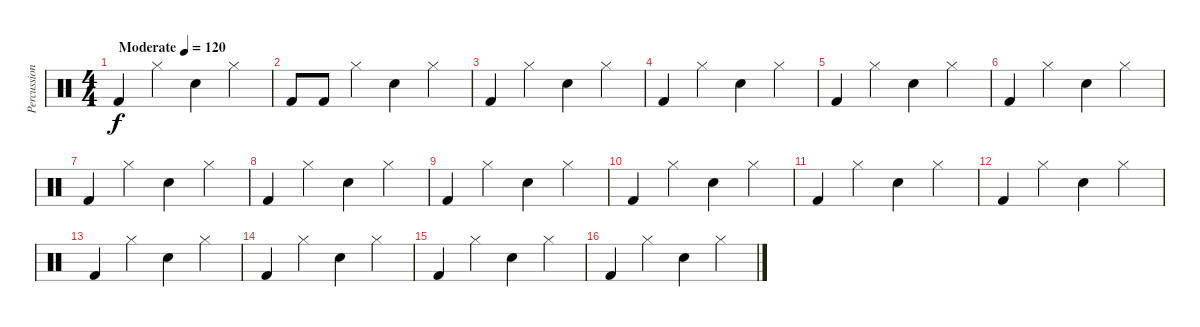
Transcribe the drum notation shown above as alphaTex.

\track ("Percussions" "Percussion") {instrument percussion}
\staff {score}
\articulation defaults
\ts (4 4)
\tempo (120 "Moderate")
\clef neutral
\ks c "Kick (hit) 2".4{dy f} "Hi-Hat (closed)".4 "Electric Snare (hit)".4 "Hi-Hat (closed)".4
|
"Kick (hit) 2".8 "Kick (hit) 2".8 "Hi-Hat (closed)".4 "Electric Snare (hit)".4 "Hi-Hat (closed)".4 |
"Kick (hit) 2".4 "Hi-Hat (closed)".4 "Electric Snare (hit)".4 "Hi-Hat (closed)".4 |
"Kick (hit) 2".4 "Hi-Hat (closed)".4 "Electric Snare (hit)".4 "Hi-Hat (closed)".4 |
"Kick (hit) 2".4 "Hi-Hat (closed)".4 "Electric Snare (hit)".4 "Hi-Hat (closed)".4 |
"Kick (hit) 2".4{volume 15 balance 15} "Hi-Hat (closed)".4 "Electric Snare (hit)".4 "Hi-Hat (closed)".4 |
"Kick (hit) 2".4 "Hi-Hat (closed)".4 "Electric Snare (hit)".4 "Hi-Hat (closed)".4 |
"Kick (hit) 2".4 "Hi-Hat (closed)".4 "Electric Snare (hit)".4 "Hi-Hat (closed)".4 |
"Kick (hit) 2".4 "Hi-Hat (closed)".4 "Electric Snare (hit)".4 "Hi-Hat (closed)".4 |
"Kick (hit) 2".4 "Hi-Hat (closed)".4 "Electric Snare (hit)".4 "Hi-Hat (closed)".4 |
"Kick (hit) 2".4 "Hi-Hat (closed)".4 "Electric Snare (hit)".4 "Hi-Hat (closed)".4 |
"Kick (hit) 2".4 "Hi-Hat (closed)".4 "Electric Snare (hit)".4 "Hi-Hat (closed)".4 |
"Kick (hit) 2".4 "Hi-Hat (closed)".4 "Electric Snare (hit)".4 "Hi-Hat (closed)".4 |
"Kick (hit) 2".4 "Hi-Hat (closed)".4 "Electric Snare (hit)".4 "Hi-Hat (closed)".4 |
"Kick (hit) 2".4 "Hi-Hat (closed)".4 "Electric Snare (hit)".4 "Hi-Hat (closed)".4 |
"Kick (hit) 2".4 "Hi-Hat (closed)".4 "Electric Snare (hit)".4 "Hi-Hat (closed)".4
